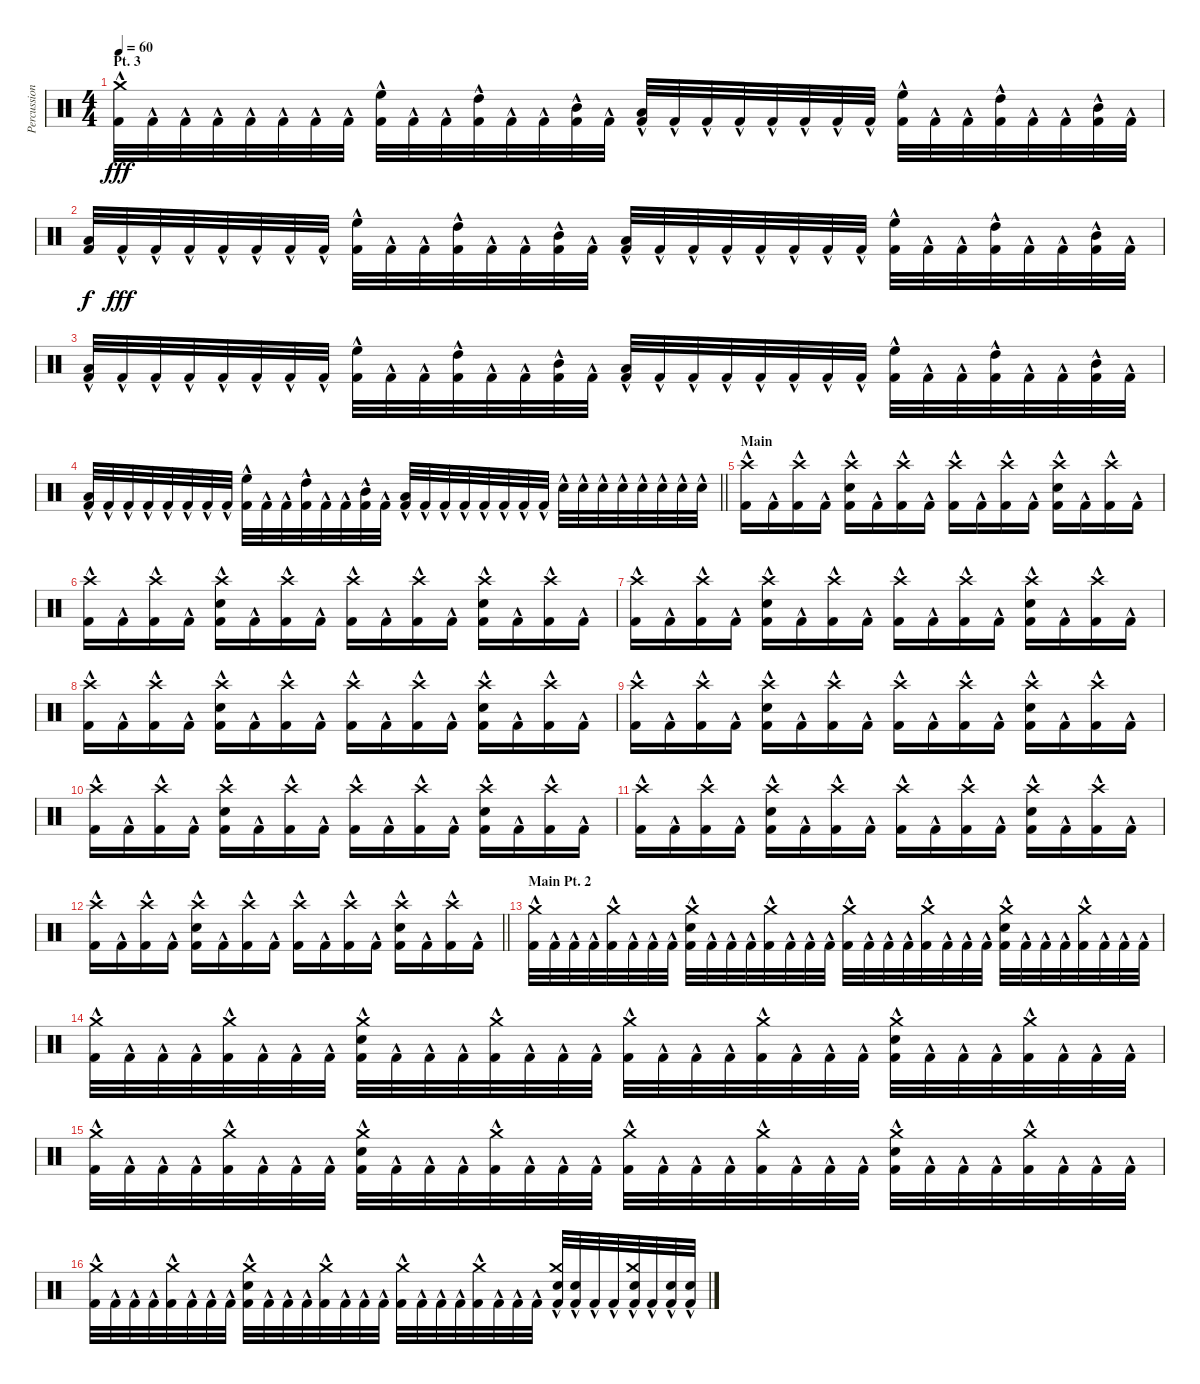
\track ("Percussion" "Percussion") {instrument percussion}
\staff {score}
\articulation defaults
\ts (4 4)
\section ("" "Pt. 3")
\tempo 60
\clef neutral
\ks c
("Kick (hit) 2"{hac} "Crash medium (hit)").32{dy fff} "Kick (hit) 2"{hac}.32 "Kick (hit) 2"{hac}.32 "Kick (hit) 2"{hac}.32 "Kick (hit) 2"{hac}.32 "Kick (hit) 2"{hac}.32 "Kick (hit) 2"{hac}.32 "Kick (hit) 2"{hac}.32 ("Kick (hit) 2"{hac} "High Floor Tom (hit)").32 "Kick (hit) 2"{hac}.32 "Kick (hit) 2"{hac}.32 ("Kick (hit) 2"{hac} "High Tom (hit)").32 "Kick (hit) 2"{hac}.32 "Kick (hit) 2"{hac}.32 ("Kick (hit) 2"{hac} "Mid Tom (hit)").32 "Kick (hit) 2"{hac}.32 ("Kick (hit) 2"{hac} "Low Tom (hit)").32 "Kick (hit) 2"{hac}.32 "Kick (hit) 2"{hac}.32 "Kick (hit) 2"{hac}.32 "Kick (hit) 2"{hac}.32 "Kick (hit) 2"{hac}.32 "Kick (hit) 2"{hac}.32 "Kick (hit) 2"{hac}.32 ("Kick (hit) 2"{hac} "High Floor Tom (hit)").32 "Kick (hit) 2"{hac}.32 "Kick (hit) 2"{hac}.32 ("Kick (hit) 2"{hac} "High Tom (hit)").32 "Kick (hit) 2"{hac}.32 "Kick (hit) 2"{hac}.32 ("Kick (hit) 2"{hac} "Mid Tom (hit)").32 "Kick (hit) 2"{hac}.32 |
("Kick (hit) 2" "Low Tom (hit)").32{dy f} "Kick (hit) 2"{hac}.32{dy fff} "Kick (hit) 2"{hac}.32 "Kick (hit) 2"{hac}.32 "Kick (hit) 2"{hac}.32 "Kick (hit) 2"{hac}.32 "Kick (hit) 2"{hac}.32 "Kick (hit) 2"{hac}.32 ("Kick (hit) 2"{hac} "High Floor Tom (hit)").32 "Kick (hit) 2"{hac}.32 "Kick (hit) 2"{hac}.32 ("Kick (hit) 2"{hac} "High Tom (hit)").32 "Kick (hit) 2"{hac}.32 "Kick (hit) 2"{hac}.32 ("Kick (hit) 2"{hac} "Mid Tom (hit)").32 "Kick (hit) 2"{hac}.32 ("Kick (hit) 2"{hac} "Low Tom (hit)").32 "Kick (hit) 2"{hac}.32 "Kick (hit) 2"{hac}.32 "Kick (hit) 2"{hac}.32 "Kick (hit) 2"{hac}.32 "Kick (hit) 2"{hac}.32 "Kick (hit) 2"{hac}.32 "Kick (hit) 2"{hac}.32 ("Kick (hit) 2"{hac} "High Floor Tom (hit)").32 "Kick (hit) 2"{hac}.32 "Kick (hit) 2"{hac}.32 ("Kick (hit) 2"{hac} "High Tom (hit)").32 "Kick (hit) 2"{hac}.32 "Kick (hit) 2"{hac}.32 ("Kick (hit) 2"{hac} "Mid Tom (hit)").32 "Kick (hit) 2"{hac}.32 |
("Kick (hit) 2"{hac} "Low Tom (hit)").32 "Kick (hit) 2"{hac}.32 "Kick (hit) 2"{hac}.32 "Kick (hit) 2"{hac}.32 "Kick (hit) 2"{hac}.32 "Kick (hit) 2"{hac}.32 "Kick (hit) 2"{hac}.32 "Kick (hit) 2"{hac}.32 ("Kick (hit) 2"{hac} "High Floor Tom (hit)").32 "Kick (hit) 2"{hac}.32 "Kick (hit) 2"{hac}.32 ("Kick (hit) 2"{hac} "High Tom (hit)").32 "Kick (hit) 2"{hac}.32 "Kick (hit) 2"{hac}.32 ("Kick (hit) 2"{hac} "Mid Tom (hit)").32 "Kick (hit) 2"{hac}.32 ("Kick (hit) 2"{hac} "Low Tom (hit)").32 "Kick (hit) 2"{hac}.32 "Kick (hit) 2"{hac}.32 "Kick (hit) 2"{hac}.32 "Kick (hit) 2"{hac}.32 "Kick (hit) 2"{hac}.32 "Kick (hit) 2"{hac}.32 "Kick (hit) 2"{hac}.32 ("Kick (hit) 2"{hac} "High Floor Tom (hit)").32 "Kick (hit) 2"{hac}.32 "Kick (hit) 2"{hac}.32 ("Kick (hit) 2"{hac} "High Tom (hit)").32 "Kick (hit) 2"{hac}.32 "Kick (hit) 2"{hac}.32 ("Kick (hit) 2"{hac} "Mid Tom (hit)").32 "Kick (hit) 2"{hac}.32 |
\barLineRight lightlight
("Kick (hit) 2"{hac} "Low Tom (hit)").32 "Kick (hit) 2"{hac}.32 "Kick (hit) 2"{hac}.32 "Kick (hit) 2"{hac}.32 "Kick (hit) 2"{hac}.32 "Kick (hit) 2"{hac}.32 "Kick (hit) 2"{hac}.32 "Kick (hit) 2"{hac}.32 ("Kick (hit) 2"{hac} "High Floor Tom (hit)").32 "Kick (hit) 2"{hac}.32 "Kick (hit) 2"{hac}.32 ("Kick (hit) 2"{hac} "High Tom (hit)").32 "Kick (hit) 2"{hac}.32 "Kick (hit) 2"{hac}.32 ("Kick (hit) 2"{hac} "Mid Tom (hit)").32 "Kick (hit) 2"{hac}.32 ("Kick (hit) 2"{hac} "Low Tom (hit)").32 "Kick (hit) 2"{hac}.32 "Kick (hit) 2"{hac}.32 "Kick (hit) 2"{hac}.32 "Kick (hit) 2"{hac}.32 "Kick (hit) 2"{hac}.32 "Kick (hit) 2"{hac}.32 "Kick (hit) 2"{hac}.32 "Electric Snare (hit)"{hac}.32 "Electric Snare (hit)"{hac}.32 "Electric Snare (hit)"{hac}.32 "Electric Snare (hit)"{hac}.32 "Electric Snare (hit)"{hac}.32 "Electric Snare (hit)"{hac}.32 "Electric Snare (hit)"{hac}.32 "Electric Snare (hit)"{hac}.32 |
\section ("" "Main")
("Kick (hit) 2"{hac} "Crash high (hit)"{hac}).16 "Kick (hit) 2"{hac}.16 ("Kick (hit) 2"{hac} "Crash high (hit)"{hac}).16 "Kick (hit) 2"{hac}.16 ("Kick (hit) 2"{hac} "Electric Snare (hit)"{hac} "Crash high (hit)"{hac}).16 "Kick (hit) 2"{hac}.16 ("Kick (hit) 2"{hac} "Crash high (hit)"{hac}).16 "Kick (hit) 2"{hac}.16 ("Kick (hit) 2"{hac} "Crash high (hit)"{hac}).16 "Kick (hit) 2"{hac}.16 ("Kick (hit) 2"{hac} "Crash high (hit)"{hac}).16 "Kick (hit) 2"{hac}.16 ("Kick (hit) 2"{hac} "Electric Snare (hit)"{hac} "Crash high (hit)"{hac}).16 "Kick (hit) 2"{hac}.16 ("Kick (hit) 2"{hac} "Crash high (hit)"{hac}).16 "Kick (hit) 2"{hac}.16 |
("Kick (hit) 2"{hac} "Crash high (hit)"{hac}).16 "Kick (hit) 2"{hac}.16 ("Kick (hit) 2"{hac} "Crash high (hit)"{hac}).16 "Kick (hit) 2"{hac}.16 ("Kick (hit) 2"{hac} "Electric Snare (hit)"{hac} "Crash high (hit)"{hac}).16 "Kick (hit) 2"{hac}.16 ("Kick (hit) 2"{hac} "Crash high (hit)"{hac}).16 "Kick (hit) 2"{hac}.16 ("Kick (hit) 2"{hac} "Crash high (hit)"{hac}).16 "Kick (hit) 2"{hac}.16 ("Kick (hit) 2"{hac} "Crash high (hit)"{hac}).16 "Kick (hit) 2"{hac}.16 ("Kick (hit) 2"{hac} "Electric Snare (hit)"{hac} "Crash high (hit)"{hac}).16 "Kick (hit) 2"{hac}.16 ("Kick (hit) 2"{hac} "Crash high (hit)"{hac}).16 "Kick (hit) 2"{hac}.16 |
("Kick (hit) 2"{hac} "Crash high (hit)"{hac}).16 "Kick (hit) 2"{hac}.16 ("Kick (hit) 2"{hac} "Crash high (hit)"{hac}).16 "Kick (hit) 2"{hac}.16 ("Kick (hit) 2"{hac} "Electric Snare (hit)"{hac} "Crash high (hit)"{hac}).16 "Kick (hit) 2"{hac}.16 ("Kick (hit) 2"{hac} "Crash high (hit)"{hac}).16 "Kick (hit) 2"{hac}.16 ("Kick (hit) 2"{hac} "Crash high (hit)"{hac}).16 "Kick (hit) 2"{hac}.16 ("Kick (hit) 2"{hac} "Crash high (hit)"{hac}).16 "Kick (hit) 2"{hac}.16 ("Kick (hit) 2"{hac} "Electric Snare (hit)"{hac} "Crash high (hit)"{hac}).16 "Kick (hit) 2"{hac}.16 ("Kick (hit) 2"{hac} "Crash high (hit)"{hac}).16 "Kick (hit) 2"{hac}.16 |
("Kick (hit) 2"{hac} "Crash high (hit)"{hac}).16 "Kick (hit) 2"{hac}.16 ("Kick (hit) 2"{hac} "Crash high (hit)"{hac}).16 "Kick (hit) 2"{hac}.16 ("Kick (hit) 2"{hac} "Electric Snare (hit)"{hac} "Crash high (hit)"{hac}).16 "Kick (hit) 2"{hac}.16 ("Kick (hit) 2"{hac} "Crash high (hit)"{hac}).16 "Kick (hit) 2"{hac}.16 ("Kick (hit) 2"{hac} "Crash high (hit)"{hac}).16 "Kick (hit) 2"{hac}.16 ("Kick (hit) 2"{hac} "Crash high (hit)"{hac}).16 "Kick (hit) 2"{hac}.16 ("Kick (hit) 2"{hac} "Electric Snare (hit)"{hac} "Crash high (hit)"{hac}).16 "Kick (hit) 2"{hac}.16 ("Kick (hit) 2"{hac} "Crash high (hit)"{hac}).16 "Kick (hit) 2"{hac}.16 |
("Kick (hit) 2"{hac} "Crash high (hit)"{hac}).16 "Kick (hit) 2"{hac}.16 ("Kick (hit) 2"{hac} "Crash high (hit)"{hac}).16 "Kick (hit) 2"{hac}.16 ("Kick (hit) 2"{hac} "Electric Snare (hit)"{hac} "Crash high (hit)"{hac}).16 "Kick (hit) 2"{hac}.16 ("Kick (hit) 2"{hac} "Crash high (hit)"{hac}).16 "Kick (hit) 2"{hac}.16 ("Kick (hit) 2"{hac} "Crash high (hit)"{hac}).16 "Kick (hit) 2"{hac}.16 ("Kick (hit) 2"{hac} "Crash high (hit)"{hac}).16 "Kick (hit) 2"{hac}.16 ("Kick (hit) 2"{hac} "Electric Snare (hit)"{hac} "Crash high (hit)"{hac}).16 "Kick (hit) 2"{hac}.16 ("Kick (hit) 2"{hac} "Crash high (hit)"{hac}).16 "Kick (hit) 2"{hac}.16 |
("Kick (hit) 2"{hac} "Crash high (hit)"{hac}).16 "Kick (hit) 2"{hac}.16 ("Kick (hit) 2"{hac} "Crash high (hit)"{hac}).16 "Kick (hit) 2"{hac}.16 ("Kick (hit) 2"{hac} "Electric Snare (hit)"{hac} "Crash high (hit)"{hac}).16 "Kick (hit) 2"{hac}.16 ("Kick (hit) 2"{hac} "Crash high (hit)"{hac}).16 "Kick (hit) 2"{hac}.16 ("Kick (hit) 2"{hac} "Crash high (hit)"{hac}).16 "Kick (hit) 2"{hac}.16 ("Kick (hit) 2"{hac} "Crash high (hit)"{hac}).16 "Kick (hit) 2"{hac}.16 ("Kick (hit) 2"{hac} "Electric Snare (hit)"{hac} "Crash high (hit)"{hac}).16 "Kick (hit) 2"{hac}.16 ("Kick (hit) 2"{hac} "Crash high (hit)"{hac}).16 "Kick (hit) 2"{hac}.16 |
("Kick (hit) 2"{hac} "Crash high (hit)"{hac}).16 "Kick (hit) 2"{hac}.16 ("Kick (hit) 2"{hac} "Crash high (hit)"{hac}).16 "Kick (hit) 2"{hac}.16 ("Kick (hit) 2"{hac} "Electric Snare (hit)"{hac} "Crash high (hit)"{hac}).16 "Kick (hit) 2"{hac}.16 ("Kick (hit) 2"{hac} "Crash high (hit)"{hac}).16 "Kick (hit) 2"{hac}.16 ("Kick (hit) 2"{hac} "Crash high (hit)"{hac}).16 "Kick (hit) 2"{hac}.16 ("Kick (hit) 2"{hac} "Crash high (hit)"{hac}).16 "Kick (hit) 2"{hac}.16 ("Kick (hit) 2"{hac} "Electric Snare (hit)"{hac} "Crash high (hit)"{hac}).16 "Kick (hit) 2"{hac}.16 ("Kick (hit) 2"{hac} "Crash high (hit)"{hac}).16 "Kick (hit) 2"{hac}.16 |
\barLineRight lightlight
("Kick (hit) 2"{hac} "Crash high (hit)"{hac}).16 "Kick (hit) 2"{hac}.16 ("Kick (hit) 2"{hac} "Crash high (hit)"{hac}).16 "Kick (hit) 2"{hac}.16 ("Kick (hit) 2"{hac} "Electric Snare (hit)"{hac} "Crash high (hit)"{hac}).16 "Kick (hit) 2"{hac}.16 ("Kick (hit) 2"{hac} "Crash high (hit)"{hac}).16 "Kick (hit) 2"{hac}.16 ("Kick (hit) 2"{hac} "Crash high (hit)"{hac}).16 "Kick (hit) 2"{hac}.16 ("Kick (hit) 2"{hac} "Crash high (hit)"{hac}).16 "Kick (hit) 2"{hac}.16 ("Kick (hit) 2"{hac} "Electric Snare (hit)"{hac} "Crash high (hit)"{hac}).16 "Kick (hit) 2"{hac}.16 ("Kick (hit) 2"{hac} "Crash high (hit)"{hac}).16 "Kick (hit) 2"{hac}.16 |
\section ("" "Main Pt. 2")
("Kick (hit) 2"{hac} "Crash medium (hit)"{hac}).32 "Kick (hit) 2"{hac}.32 "Kick (hit) 2"{hac}.32 "Kick (hit) 2"{hac}.32 ("Kick (hit) 2"{hac} "Crash medium (hit)"{hac}).32 "Kick (hit) 2"{hac}.32 "Kick (hit) 2"{hac}.32 "Kick (hit) 2"{hac}.32 ("Kick (hit) 2"{hac} "Electric Snare (hit)"{hac} "Crash medium (hit)"{hac}).32 "Kick (hit) 2"{hac}.32 "Kick (hit) 2"{hac}.32 "Kick (hit) 2"{hac}.32 ("Kick (hit) 2"{hac} "Crash medium (hit)"{hac}).32 "Kick (hit) 2"{hac}.32 "Kick (hit) 2"{hac}.32 "Kick (hit) 2"{hac}.32 ("Kick (hit) 2"{hac} "Crash medium (hit)"{hac}).32 "Kick (hit) 2"{hac}.32 "Kick (hit) 2"{hac}.32 "Kick (hit) 2"{hac}.32 ("Kick (hit) 2"{hac} "Crash medium (hit)"{hac}).32 "Kick (hit) 2"{hac}.32 "Kick (hit) 2"{hac}.32 "Kick (hit) 2"{hac}.32 ("Kick (hit) 2"{hac} "Electric Snare (hit)"{hac} "Crash medium (hit)"{hac}).32 "Kick (hit) 2"{hac}.32 "Kick (hit) 2"{hac}.32 "Kick (hit) 2"{hac}.32 ("Kick (hit) 2"{hac} "Crash medium (hit)"{hac}).32 "Kick (hit) 2"{hac}.32 "Kick (hit) 2"{hac}.32 "Kick (hit) 2"{hac}.32 |
("Kick (hit) 2"{hac} "Crash medium (hit)"{hac}).32 "Kick (hit) 2"{hac}.32 "Kick (hit) 2"{hac}.32 "Kick (hit) 2"{hac}.32 ("Kick (hit) 2"{hac} "Crash medium (hit)"{hac}).32 "Kick (hit) 2"{hac}.32 "Kick (hit) 2"{hac}.32 "Kick (hit) 2"{hac}.32 ("Kick (hit) 2"{hac} "Electric Snare (hit)"{hac} "Crash medium (hit)"{hac}).32 "Kick (hit) 2"{hac}.32 "Kick (hit) 2"{hac}.32 "Kick (hit) 2"{hac}.32 ("Kick (hit) 2"{hac} "Crash medium (hit)"{hac}).32 "Kick (hit) 2"{hac}.32 "Kick (hit) 2"{hac}.32 "Kick (hit) 2"{hac}.32 ("Kick (hit) 2"{hac} "Crash medium (hit)"{hac}).32 "Kick (hit) 2"{hac}.32 "Kick (hit) 2"{hac}.32 "Kick (hit) 2"{hac}.32 ("Kick (hit) 2"{hac} "Crash medium (hit)"{hac}).32 "Kick (hit) 2"{hac}.32 "Kick (hit) 2"{hac}.32 "Kick (hit) 2"{hac}.32 ("Kick (hit) 2"{hac} "Electric Snare (hit)"{hac} "Crash medium (hit)"{hac}).32 "Kick (hit) 2"{hac}.32 "Kick (hit) 2"{hac}.32 "Kick (hit) 2"{hac}.32 ("Kick (hit) 2"{hac} "Crash medium (hit)"{hac}).32 "Kick (hit) 2"{hac}.32 "Kick (hit) 2"{hac}.32 "Kick (hit) 2"{hac}.32 |
("Kick (hit) 2"{hac} "Crash medium (hit)"{hac}).32 "Kick (hit) 2"{hac}.32 "Kick (hit) 2"{hac}.32 "Kick (hit) 2"{hac}.32 ("Kick (hit) 2"{hac} "Crash medium (hit)"{hac}).32 "Kick (hit) 2"{hac}.32 "Kick (hit) 2"{hac}.32 "Kick (hit) 2"{hac}.32 ("Kick (hit) 2"{hac} "Electric Snare (hit)"{hac} "Crash medium (hit)"{hac}).32 "Kick (hit) 2"{hac}.32 "Kick (hit) 2"{hac}.32 "Kick (hit) 2"{hac}.32 ("Kick (hit) 2"{hac} "Crash medium (hit)"{hac}).32 "Kick (hit) 2"{hac}.32 "Kick (hit) 2"{hac}.32 "Kick (hit) 2"{hac}.32 ("Kick (hit) 2"{hac} "Crash medium (hit)"{hac}).32 "Kick (hit) 2"{hac}.32 "Kick (hit) 2"{hac}.32 "Kick (hit) 2"{hac}.32 ("Kick (hit) 2"{hac} "Crash medium (hit)"{hac}).32 "Kick (hit) 2"{hac}.32 "Kick (hit) 2"{hac}.32 "Kick (hit) 2"{hac}.32 ("Kick (hit) 2"{hac} "Electric Snare (hit)"{hac} "Crash medium (hit)"{hac}).32 "Kick (hit) 2"{hac}.32 "Kick (hit) 2"{hac}.32 "Kick (hit) 2"{hac}.32 ("Kick (hit) 2"{hac} "Crash medium (hit)"{hac}).32 "Kick (hit) 2"{hac}.32 "Kick (hit) 2"{hac}.32 "Kick (hit) 2"{hac}.32 |
("Kick (hit) 2"{hac} "Crash medium (hit)"{hac}).32 "Kick (hit) 2"{hac}.32 "Kick (hit) 2"{hac}.32 "Kick (hit) 2"{hac}.32 ("Kick (hit) 2"{hac} "Crash medium (hit)"{hac}).32 "Kick (hit) 2"{hac}.32 "Kick (hit) 2"{hac}.32 "Kick (hit) 2"{hac}.32 ("Kick (hit) 2"{hac} "Electric Snare (hit)"{hac} "Crash medium (hit)"{hac}).32 "Kick (hit) 2"{hac}.32 "Kick (hit) 2"{hac}.32 "Kick (hit) 2"{hac}.32 ("Kick (hit) 2"{hac} "Crash medium (hit)"{hac}).32 "Kick (hit) 2"{hac}.32 "Kick (hit) 2"{hac}.32 "Kick (hit) 2"{hac}.32 ("Kick (hit) 2"{hac} "Crash medium (hit)"{hac}).32 "Kick (hit) 2"{hac}.32 "Kick (hit) 2"{hac}.32 "Kick (hit) 2"{hac}.32 ("Kick (hit) 2"{hac} "Crash medium (hit)"{hac}).32 "Kick (hit) 2"{hac}.32 "Kick (hit) 2"{hac}.32 "Kick (hit) 2"{hac}.32 ("Kick (hit) 2"{hac} "Electric Snare (hit)"{hac} "Crash medium (hit)"{hac}).32 ("Kick (hit) 2"{hac} "Electric Snare (hit)"{hac}).32 "Kick (hit) 2"{hac}.32 "Kick (hit) 2"{hac}.32 ("Kick (hit) 2"{hac} "Crash medium (hit)"{hac} "Electric Snare (hit)"{hac}).32 "Kick (hit) 2"{hac}.32 ("Kick (hit) 2"{hac} "Electric Snare (hit)").32 ("Kick (hit) 2"{hac} "Electric Snare (hit)").32
